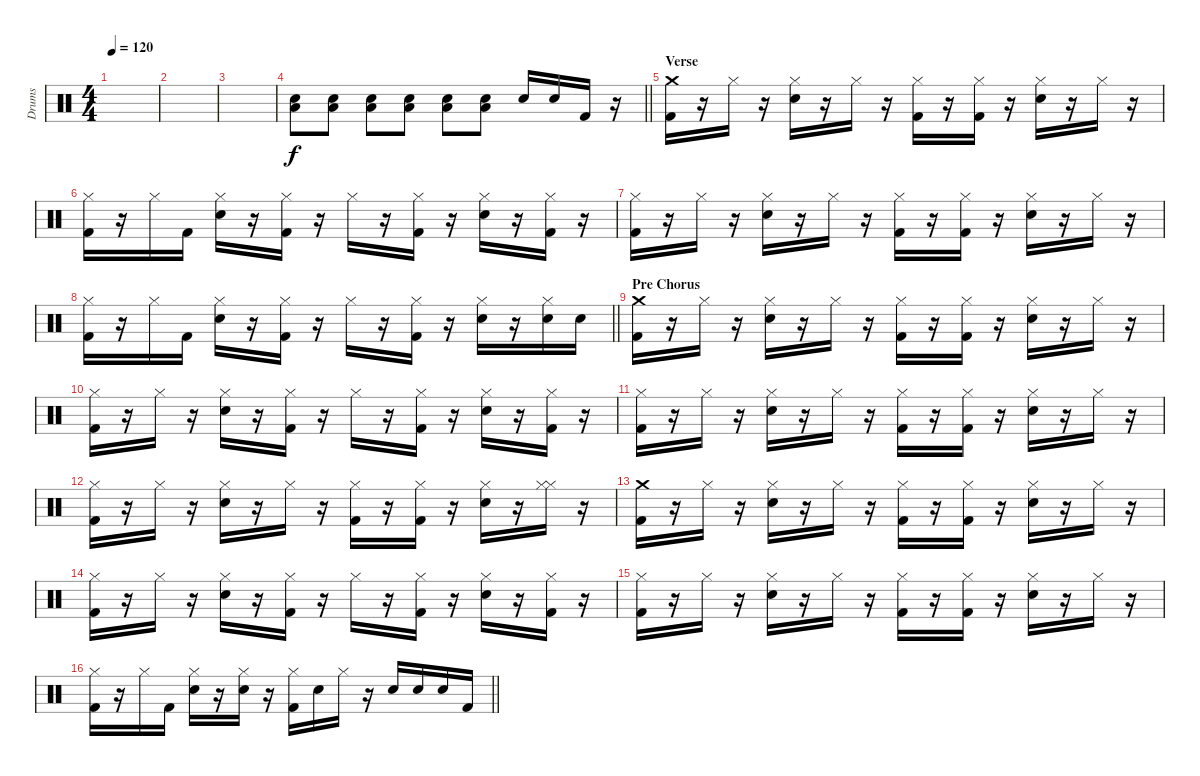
\track ("Drums" "Drums") {instrument percussion}
\staff {score}
\articulation defaults
\ts (4 4)
\tempo 120
\clef neutral
\ks c
|
|
|
\barLineRight lightlight
("Electric Snare (hit)" "Low Floor Tom (hit)").8 ("Electric Snare (hit)" "Low Floor Tom (hit)").8 ("Electric Snare (hit)" "Low Floor Tom (hit)").8 ("Electric Snare (hit)" "Low Floor Tom (hit)").8 ("Electric Snare (hit)" "Low Floor Tom (hit)").8 ("Electric Snare (hit)" "Low Floor Tom (hit)").8 "Electric Snare (hit)".16 "Electric Snare (hit)".16 "Kick (hit) 2".16 r.16 |
\section ("" "Verse")
("Crash medium (hit)" "Kick (hit) 2").16 r.16 "Hi-Hat (closed)".16 r.16 ("Hi-Hat (closed)" "Snare (hit) 2").16 r.16 "Hi-Hat (closed)".16 r.16 ("Hi-Hat (closed)" "Kick (hit) 2").16 r.16 ("Hi-Hat (closed)" "Kick (hit) 2").16 r.16 ("Hi-Hat (closed)" "Snare (hit) 2").16 r.16 "Hi-Hat (closed)".16 r.16 |
("Hi-Hat (closed)" "Kick (hit) 2").16 r.16 "Hi-Hat (closed)".16 "Kick (hit) 2".16 ("Hi-Hat (closed)" "Snare (hit) 2").16 r.16 ("Hi-Hat (closed)" "Kick (hit) 2").16 r.16 "Hi-Hat (closed)".16 r.16 ("Hi-Hat (closed)" "Kick (hit) 2").16 r.16 ("Hi-Hat (closed)" "Snare (hit) 2").16 r.16 ("Hi-Hat (closed)" "Kick (hit) 2").16 r.16 |
("Hi-Hat (closed)" "Kick (hit) 2").16 r.16 "Hi-Hat (closed)".16 r.16 ("Hi-Hat (closed)" "Snare (hit) 2").16 r.16 "Hi-Hat (closed)".16 r.16 ("Hi-Hat (closed)" "Kick (hit) 2").16 r.16 ("Hi-Hat (closed)" "Kick (hit) 2").16 r.16 ("Hi-Hat (closed)" "Snare (hit) 2").16 r.16 "Hi-Hat (closed)".16 r.16 |
\barLineRight lightlight
("Hi-Hat (closed)" "Kick (hit) 2").16 r.16 "Hi-Hat (closed)".16 "Kick (hit) 2".16 ("Hi-Hat (closed)" "Snare (hit) 2").16 r.16 ("Hi-Hat (closed)" "Kick (hit) 2").16 r.16 "Hi-Hat (closed)".16 r.16 ("Hi-Hat (closed)" "Kick (hit) 2").16 r.16 ("Hi-Hat (closed)" "Snare (hit) 2").16 r.16 ("Hi-Hat (closed)" "Snare (hit) 2").16 "Snare (hit) 2".16 |
\section ("" "Pre Chorus")
("Crash medium (hit)" "Kick (hit) 2").16 r.16 "Hi-Hat (closed)".16 r.16 ("Hi-Hat (closed)" "Snare (hit) 2").16 r.16 "Hi-Hat (closed)".16 r.16 ("Hi-Hat (closed)" "Kick (hit) 2").16 r.16 ("Hi-Hat (closed)" "Kick (hit) 2").16 r.16 ("Hi-Hat (closed)" "Snare (hit) 2").16 r.16 "Hi-Hat (closed)".16 r.16 |
("Hi-Hat (closed)" "Kick (hit) 2").16 r.16 "Hi-Hat (closed)".16 r.16 ("Hi-Hat (closed)" "Snare (hit) 2").16 r.16 ("Hi-Hat (closed)" "Kick (hit) 2").16 r.16 "Hi-Hat (closed)".16 r.16 ("Hi-Hat (closed)" "Kick (hit) 2").16 r.16 ("Hi-Hat (closed)" "Snare (hit) 2").16 r.16 ("Hi-Hat (closed)" "Kick (hit) 2").16 r.16 |
("Hi-Hat (closed)" "Kick (hit) 2").16 r.16 "Hi-Hat (closed)".16 r.16 ("Hi-Hat (closed)" "Snare (hit) 2").16 r.16 "Hi-Hat (closed)".16 r.16 ("Hi-Hat (closed)" "Kick (hit) 2").16 r.16 ("Hi-Hat (closed)" "Kick (hit) 2").16 r.16 ("Hi-Hat (closed)" "Snare (hit) 2").16 r.16 "Hi-Hat (closed)".16 r.16 |
("Hi-Hat (closed)" "Kick (hit) 2").16 r.16 "Hi-Hat (closed)".16 r.16 ("Hi-Hat (closed)" "Snare (hit) 2").16 r.16 "Hi-Hat (closed)".16 r.16 ("Hi-Hat (closed)" "Kick (hit) 2").16 r.16 ("Hi-Hat (closed)" "Kick (hit) 2").16 r.16 ("Hi-Hat (closed)" "Snare (hit) 2").16 r.16 ("Hi-Hat (closed)" "Hi-Hat (closed)").16 r.16 |
("Crash medium (hit)" "Kick (hit) 2").16 r.16 "Hi-Hat (closed)".16 r.16 ("Hi-Hat (closed)" "Snare (hit) 2").16 r.16 "Hi-Hat (closed)".16 r.16 ("Hi-Hat (closed)" "Kick (hit) 2").16 r.16 ("Hi-Hat (closed)" "Kick (hit) 2").16 r.16 ("Hi-Hat (closed)" "Snare (hit) 2").16 r.16 "Hi-Hat (closed)".16 r.16 |
("Hi-Hat (closed)" "Kick (hit) 2").16 r.16 "Hi-Hat (closed)".16 r.16 ("Hi-Hat (closed)" "Snare (hit) 2").16 r.16 ("Hi-Hat (closed)" "Kick (hit) 2").16 r.16 "Hi-Hat (closed)".16 r.16 ("Hi-Hat (closed)" "Kick (hit) 2").16 r.16 ("Hi-Hat (closed)" "Snare (hit) 2").16 r.16 ("Hi-Hat (closed)" "Kick (hit) 2").16 r.16 |
("Hi-Hat (closed)" "Kick (hit) 2").16 r.16 "Hi-Hat (closed)".16 r.16 ("Hi-Hat (closed)" "Snare (hit) 2").16 r.16 "Hi-Hat (closed)".16 r.16 ("Hi-Hat (closed)" "Kick (hit) 2").16 r.16 ("Hi-Hat (closed)" "Kick (hit) 2").16 r.16 ("Hi-Hat (closed)" "Snare (hit) 2").16 r.16 "Hi-Hat (closed)".16 r.16 |
\barLineRight lightlight
("Hi-Hat (closed)" "Kick (hit) 2").16 r.16 "Hi-Hat (closed)".16 "Kick (hit) 2".16 ("Hi-Hat (closed)" "Snare (hit) 2").16 r.16 ("Hi-Hat (closed)" "Snare (hit) 2").16 r.16 ("Hi-Hat (closed)" "Kick (hit) 2").16 "Snare (hit) 2".16 "Hi-Hat (closed)".16 r.16 "Snare (hit) 2".16 "Snare (hit) 2".16 "Snare (hit) 2".16 "Kick (hit) 2".16
